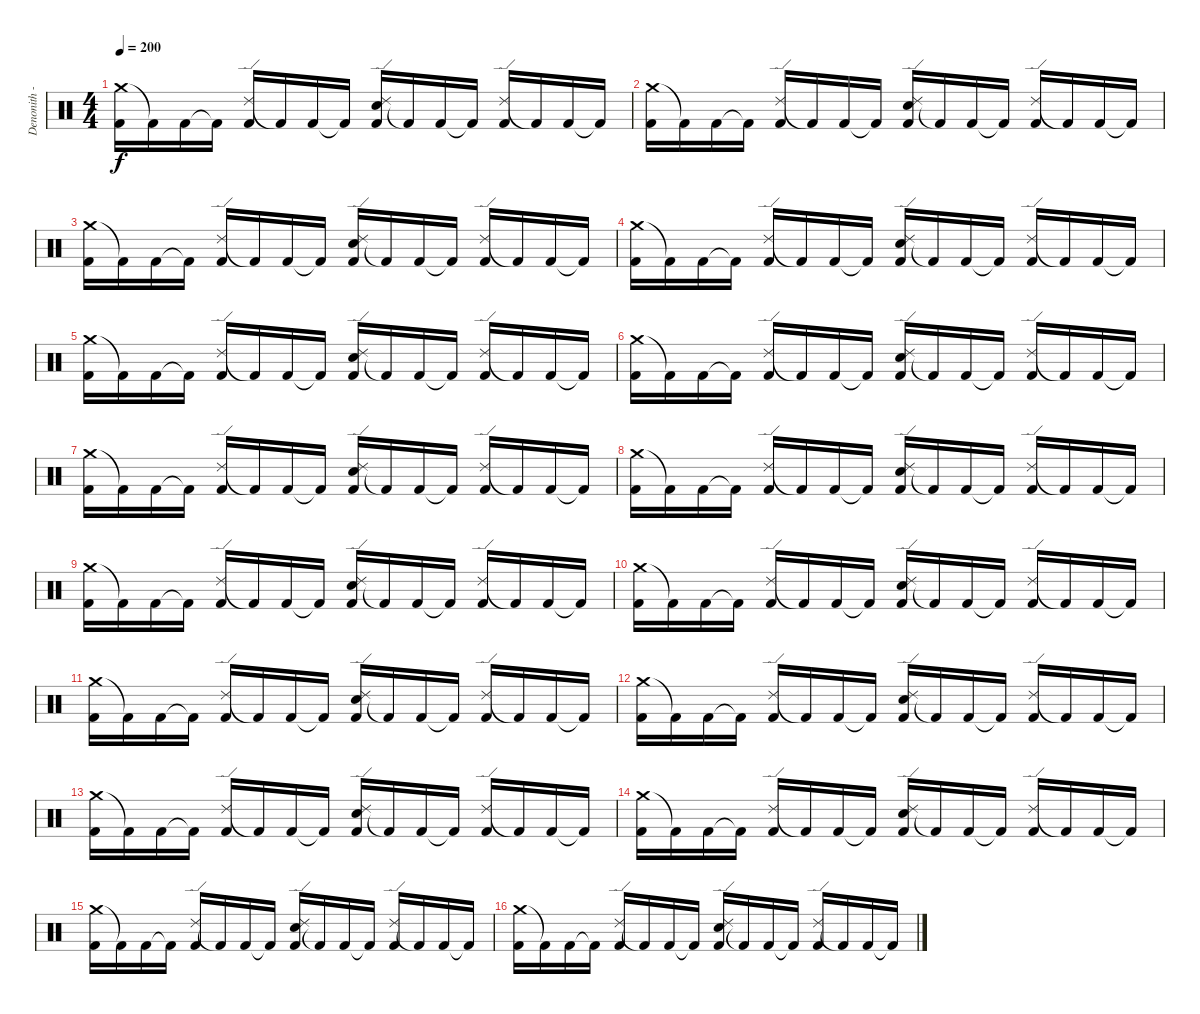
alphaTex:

\track ("Denonith - Spyros" "Denonith -") {instrument percussion}
\staff {score}
\articulation defaults
\ts (4 4)
\tempo 200
\clef neutral
\ks c
("Crash medium (hit)" "Kick (hit) 2").16{dy f} "Kick (hit) 2"{t}.16 "Kick (hit) 2".16 "Kick (hit) 2"{t}.16 ("Ride (edge) 2" "Kick (hit) 2").16 "Kick (hit) 2"{t}.16 "Kick (hit) 2".16 "Kick (hit) 2"{t}.16 ("Ride (edge) 2" "Electric Snare (hit)" "Kick (hit) 2").16 "Kick (hit) 2"{t}.16 "Kick (hit) 2".16 "Kick (hit) 2"{t}.16 ("Ride (edge) 2" "Kick (hit) 2").16 "Kick (hit) 2"{t}.16 "Kick (hit) 2".16 "Kick (hit) 2"{t}.16 |
("Crash medium (hit)" "Kick (hit) 2").16 "Kick (hit) 2"{t}.16 "Kick (hit) 2".16 "Kick (hit) 2"{t}.16 ("Ride (edge) 2" "Kick (hit) 2").16 "Kick (hit) 2"{t}.16 "Kick (hit) 2".16 "Kick (hit) 2"{t}.16 ("Ride (edge) 2" "Electric Snare (hit)" "Kick (hit) 2").16 "Kick (hit) 2"{t}.16 "Kick (hit) 2".16 "Kick (hit) 2"{t}.16 ("Ride (edge) 2" "Kick (hit) 2").16 "Kick (hit) 2"{t}.16 "Kick (hit) 2".16 "Kick (hit) 2"{t}.16 |
("Crash medium (hit)" "Kick (hit) 2").16 "Kick (hit) 2"{t}.16 "Kick (hit) 2".16 "Kick (hit) 2"{t}.16 ("Ride (edge) 2" "Kick (hit) 2").16 "Kick (hit) 2"{t}.16 "Kick (hit) 2".16 "Kick (hit) 2"{t}.16 ("Ride (edge) 2" "Electric Snare (hit)" "Kick (hit) 2").16 "Kick (hit) 2"{t}.16 "Kick (hit) 2".16 "Kick (hit) 2"{t}.16 ("Ride (edge) 2" "Kick (hit) 2").16 "Kick (hit) 2"{t}.16 "Kick (hit) 2".16 "Kick (hit) 2"{t}.16 |
("Crash medium (hit)" "Kick (hit) 2").16 "Kick (hit) 2"{t}.16 "Kick (hit) 2".16 "Kick (hit) 2"{t}.16 ("Ride (edge) 2" "Kick (hit) 2").16 "Kick (hit) 2"{t}.16 "Kick (hit) 2".16 "Kick (hit) 2"{t}.16 ("Ride (edge) 2" "Electric Snare (hit)" "Kick (hit) 2").16 "Kick (hit) 2"{t}.16 "Kick (hit) 2".16 "Kick (hit) 2"{t}.16 ("Ride (edge) 2" "Kick (hit) 2").16 "Kick (hit) 2"{t}.16 "Kick (hit) 2".16 "Kick (hit) 2"{t}.16 |
("Crash medium (hit)" "Kick (hit) 2").16 "Kick (hit) 2"{t}.16 "Kick (hit) 2".16 "Kick (hit) 2"{t}.16 ("Ride (edge) 2" "Kick (hit) 2").16 "Kick (hit) 2"{t}.16 "Kick (hit) 2".16 "Kick (hit) 2"{t}.16 ("Ride (edge) 2" "Electric Snare (hit)" "Kick (hit) 2").16 "Kick (hit) 2"{t}.16 "Kick (hit) 2".16 "Kick (hit) 2"{t}.16 ("Ride (edge) 2" "Kick (hit) 2").16 "Kick (hit) 2"{t}.16 "Kick (hit) 2".16 "Kick (hit) 2"{t}.16 |
("Crash medium (hit)" "Kick (hit) 2").16 "Kick (hit) 2"{t}.16 "Kick (hit) 2".16 "Kick (hit) 2"{t}.16 ("Ride (edge) 2" "Kick (hit) 2").16 "Kick (hit) 2"{t}.16 "Kick (hit) 2".16 "Kick (hit) 2"{t}.16 ("Ride (edge) 2" "Electric Snare (hit)" "Kick (hit) 2").16 "Kick (hit) 2"{t}.16 "Kick (hit) 2".16 "Kick (hit) 2"{t}.16 ("Ride (edge) 2" "Kick (hit) 2").16 "Kick (hit) 2"{t}.16 "Kick (hit) 2".16 "Kick (hit) 2"{t}.16 |
("Crash medium (hit)" "Kick (hit) 2").16 "Kick (hit) 2"{t}.16 "Kick (hit) 2".16 "Kick (hit) 2"{t}.16 ("Ride (edge) 2" "Kick (hit) 2").16 "Kick (hit) 2"{t}.16 "Kick (hit) 2".16 "Kick (hit) 2"{t}.16 ("Ride (edge) 2" "Electric Snare (hit)" "Kick (hit) 2").16 "Kick (hit) 2"{t}.16 "Kick (hit) 2".16 "Kick (hit) 2"{t}.16 ("Ride (edge) 2" "Kick (hit) 2").16 "Kick (hit) 2"{t}.16 "Kick (hit) 2".16 "Kick (hit) 2"{t}.16 |
("Crash medium (hit)" "Kick (hit) 2").16 "Kick (hit) 2"{t}.16 "Kick (hit) 2".16 "Kick (hit) 2"{t}.16 ("Ride (edge) 2" "Kick (hit) 2").16 "Kick (hit) 2"{t}.16 "Kick (hit) 2".16 "Kick (hit) 2"{t}.16 ("Ride (edge) 2" "Electric Snare (hit)" "Kick (hit) 2").16 "Kick (hit) 2"{t}.16 "Kick (hit) 2".16 "Kick (hit) 2"{t}.16 ("Ride (edge) 2" "Kick (hit) 2").16 "Kick (hit) 2"{t}.16 "Kick (hit) 2".16 "Kick (hit) 2"{t}.16 |
("Crash medium (hit)" "Kick (hit) 2").16 "Kick (hit) 2"{t}.16 "Kick (hit) 2".16 "Kick (hit) 2"{t}.16 ("Ride (edge) 2" "Kick (hit) 2").16 "Kick (hit) 2"{t}.16 "Kick (hit) 2".16 "Kick (hit) 2"{t}.16 ("Ride (edge) 2" "Electric Snare (hit)" "Kick (hit) 2").16 "Kick (hit) 2"{t}.16 "Kick (hit) 2".16 "Kick (hit) 2"{t}.16 ("Ride (edge) 2" "Kick (hit) 2").16 "Kick (hit) 2"{t}.16 "Kick (hit) 2".16 "Kick (hit) 2"{t}.16 |
("Crash medium (hit)" "Kick (hit) 2").16 "Kick (hit) 2"{t}.16 "Kick (hit) 2".16 "Kick (hit) 2"{t}.16 ("Ride (edge) 2" "Kick (hit) 2").16 "Kick (hit) 2"{t}.16 "Kick (hit) 2".16 "Kick (hit) 2"{t}.16 ("Ride (edge) 2" "Electric Snare (hit)" "Kick (hit) 2").16 "Kick (hit) 2"{t}.16 "Kick (hit) 2".16 "Kick (hit) 2"{t}.16 ("Ride (edge) 2" "Kick (hit) 2").16 "Kick (hit) 2"{t}.16 "Kick (hit) 2".16 "Kick (hit) 2"{t}.16 |
("Crash medium (hit)" "Kick (hit) 2").16 "Kick (hit) 2"{t}.16 "Kick (hit) 2".16 "Kick (hit) 2"{t}.16 ("Ride (edge) 2" "Kick (hit) 2").16 "Kick (hit) 2"{t}.16 "Kick (hit) 2".16 "Kick (hit) 2"{t}.16 ("Ride (edge) 2" "Electric Snare (hit)" "Kick (hit) 2").16 "Kick (hit) 2"{t}.16 "Kick (hit) 2".16 "Kick (hit) 2"{t}.16 ("Ride (edge) 2" "Kick (hit) 2").16 "Kick (hit) 2"{t}.16 "Kick (hit) 2".16 "Kick (hit) 2"{t}.16 |
("Crash medium (hit)" "Kick (hit) 2").16 "Kick (hit) 2"{t}.16 "Kick (hit) 2".16 "Kick (hit) 2"{t}.16 ("Ride (edge) 2" "Kick (hit) 2").16 "Kick (hit) 2"{t}.16 "Kick (hit) 2".16 "Kick (hit) 2"{t}.16 ("Ride (edge) 2" "Electric Snare (hit)" "Kick (hit) 2").16 "Kick (hit) 2"{t}.16 "Kick (hit) 2".16 "Kick (hit) 2"{t}.16 ("Ride (edge) 2" "Kick (hit) 2").16 "Kick (hit) 2"{t}.16 "Kick (hit) 2".16 "Kick (hit) 2"{t}.16 |
("Crash medium (hit)" "Kick (hit) 2").16 "Kick (hit) 2"{t}.16 "Kick (hit) 2".16 "Kick (hit) 2"{t}.16 ("Ride (edge) 2" "Kick (hit) 2").16 "Kick (hit) 2"{t}.16 "Kick (hit) 2".16 "Kick (hit) 2"{t}.16 ("Ride (edge) 2" "Electric Snare (hit)" "Kick (hit) 2").16 "Kick (hit) 2"{t}.16 "Kick (hit) 2".16 "Kick (hit) 2"{t}.16 ("Ride (edge) 2" "Kick (hit) 2").16 "Kick (hit) 2"{t}.16 "Kick (hit) 2".16 "Kick (hit) 2"{t}.16 |
("Crash medium (hit)" "Kick (hit) 2").16 "Kick (hit) 2"{t}.16 "Kick (hit) 2".16 "Kick (hit) 2"{t}.16 ("Ride (edge) 2" "Kick (hit) 2").16 "Kick (hit) 2"{t}.16 "Kick (hit) 2".16 "Kick (hit) 2"{t}.16 ("Ride (edge) 2" "Electric Snare (hit)" "Kick (hit) 2").16 "Kick (hit) 2"{t}.16 "Kick (hit) 2".16 "Kick (hit) 2"{t}.16 ("Ride (edge) 2" "Kick (hit) 2").16 "Kick (hit) 2"{t}.16 "Kick (hit) 2".16 "Kick (hit) 2"{t}.16 |
("Crash medium (hit)" "Kick (hit) 2").16{volume 0} "Kick (hit) 2"{t}.16 "Kick (hit) 2".16 "Kick (hit) 2"{t}.16 ("Ride (edge) 2" "Kick (hit) 2").16 "Kick (hit) 2"{t}.16 "Kick (hit) 2".16 "Kick (hit) 2"{t}.16 ("Ride (edge) 2" "Electric Snare (hit)" "Kick (hit) 2").16 "Kick (hit) 2"{t}.16 "Kick (hit) 2".16 "Kick (hit) 2"{t}.16 ("Ride (edge) 2" "Kick (hit) 2").16 "Kick (hit) 2"{t}.16 "Kick (hit) 2".16 "Kick (hit) 2"{t}.16 |
("Crash medium (hit)" "Kick (hit) 2").16 "Kick (hit) 2"{t}.16 "Kick (hit) 2".16 "Kick (hit) 2"{t}.16 ("Ride (edge) 2" "Kick (hit) 2").16 "Kick (hit) 2"{t}.16 "Kick (hit) 2".16 "Kick (hit) 2"{t}.16 ("Ride (edge) 2" "Electric Snare (hit)" "Kick (hit) 2").16 "Kick (hit) 2"{t}.16 "Kick (hit) 2".16 "Kick (hit) 2"{t}.16 ("Ride (edge) 2" "Kick (hit) 2").16 "Kick (hit) 2"{t}.16 "Kick (hit) 2".16 "Kick (hit) 2"{t}.16
